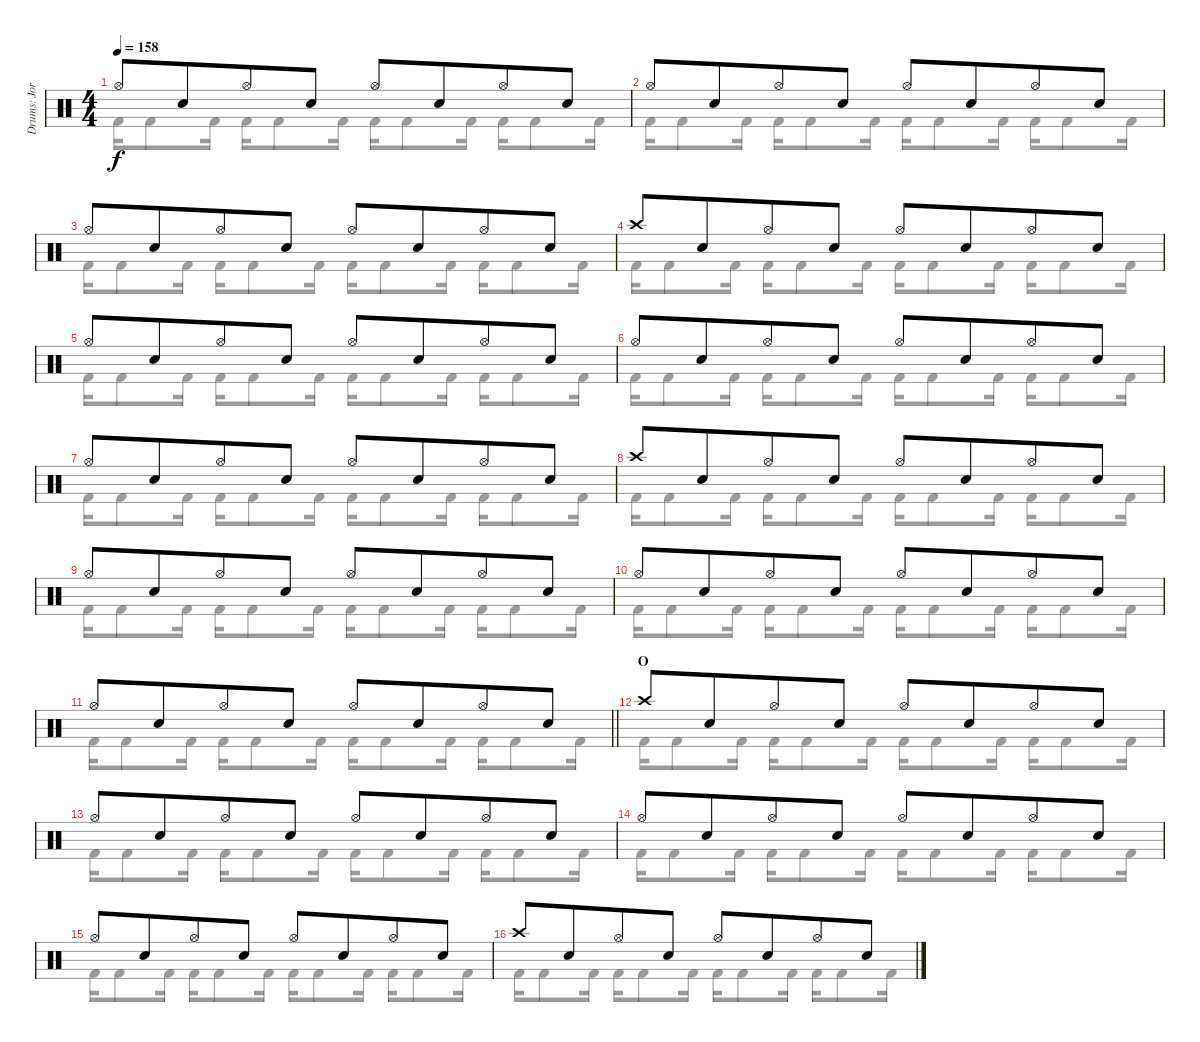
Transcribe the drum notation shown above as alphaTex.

\track ("Drums: Jorg" "Drums: Jor") {instrument percussion}
\staff {score}
\articulation defaults
\voice
\ts (4 4)
\tempo 158
\clef neutral
\ks c "Hi-Hat (open)".8{dy f} "Snare (hit) 2".8{beam merge} "Hi-Hat (open)".8 "Snare (hit) 2".8 "Hi-Hat (open)".8 "Snare (hit) 2".8{beam merge} "Hi-Hat (open)".8 "Snare (hit) 2".8
|
"Hi-Hat (open)".8 "Snare (hit) 2".8{beam merge} "Hi-Hat (open)".8 "Snare (hit) 2".8 "Hi-Hat (open)".8 "Snare (hit) 2".8{beam merge} "Hi-Hat (open)".8 "Snare (hit) 2".8 |
"Hi-Hat (open)".8 "Snare (hit) 2".8{beam merge} "Hi-Hat (open)".8 "Snare (hit) 2".8 "Hi-Hat (open)".8 "Snare (hit) 2".8{beam merge} "Hi-Hat (open)".8 "Snare (hit) 2".8 |
"Crash high (hit)".8 "Snare (hit) 2".8{beam merge} "Hi-Hat (open)".8 "Snare (hit) 2".8 "Hi-Hat (open)".8 "Snare (hit) 2".8{beam merge} "Hi-Hat (open)".8 "Snare (hit) 2".8 |
"Hi-Hat (open)".8 "Snare (hit) 2".8{beam merge} "Hi-Hat (open)".8 "Snare (hit) 2".8 "Hi-Hat (open)".8 "Snare (hit) 2".8{beam merge} "Hi-Hat (open)".8 "Snare (hit) 2".8 |
"Hi-Hat (open)".8 "Snare (hit) 2".8{beam merge} "Hi-Hat (open)".8 "Snare (hit) 2".8 "Hi-Hat (open)".8 "Snare (hit) 2".8{beam merge} "Hi-Hat (open)".8 "Snare (hit) 2".8 |
"Hi-Hat (open)".8 "Snare (hit) 2".8{beam merge} "Hi-Hat (open)".8 "Snare (hit) 2".8 "Hi-Hat (open)".8 "Snare (hit) 2".8{beam merge} "Hi-Hat (open)".8 "Snare (hit) 2".8 |
"Crash high (hit)".8 "Snare (hit) 2".8{beam merge} "Hi-Hat (open)".8 "Snare (hit) 2".8 "Hi-Hat (open)".8 "Snare (hit) 2".8{beam merge} "Hi-Hat (open)".8 "Snare (hit) 2".8 |
"Hi-Hat (open)".8 "Snare (hit) 2".8{beam merge} "Hi-Hat (open)".8 "Snare (hit) 2".8 "Hi-Hat (open)".8 "Snare (hit) 2".8{beam merge} "Hi-Hat (open)".8 "Snare (hit) 2".8 |
"Hi-Hat (open)".8 "Snare (hit) 2".8{beam merge} "Hi-Hat (open)".8 "Snare (hit) 2".8 "Hi-Hat (open)".8 "Snare (hit) 2".8{beam merge} "Hi-Hat (open)".8 "Snare (hit) 2".8 |
\barLineRight lightlight "Hi-Hat (open)".8 "Snare (hit) 2".8{beam merge} "Hi-Hat (open)".8 "Snare (hit) 2".8 "Hi-Hat (open)".8 "Snare (hit) 2".8{beam merge} "Hi-Hat (open)".8 "Snare (hit) 2".8
|
\section ("" "O")
"Crash high (hit)".8 "Snare (hit) 2".8{beam merge} "Hi-Hat (open)".8 "Snare (hit) 2".8 "Hi-Hat (open)".8 "Snare (hit) 2".8{beam merge} "Hi-Hat (open)".8 "Snare (hit) 2".8 |
"Hi-Hat (open)".8 "Snare (hit) 2".8{beam merge} "Hi-Hat (open)".8 "Snare (hit) 2".8 "Hi-Hat (open)".8 "Snare (hit) 2".8{beam merge} "Hi-Hat (open)".8 "Snare (hit) 2".8 |
"Hi-Hat (open)".8 "Snare (hit) 2".8{beam merge} "Hi-Hat (open)".8 "Snare (hit) 2".8 "Hi-Hat (open)".8 "Snare (hit) 2".8{beam merge} "Hi-Hat (open)".8 "Snare (hit) 2".8 |
"Hi-Hat (open)".8 "Snare (hit) 2".8{beam merge} "Hi-Hat (open)".8 "Snare (hit) 2".8 "Hi-Hat (open)".8 "Snare (hit) 2".8{beam merge} "Hi-Hat (open)".8 "Snare (hit) 2".8 |
"Crash high (hit)".8 "Snare (hit) 2".8{beam merge} "Hi-Hat (open)".8 "Snare (hit) 2".8 "Hi-Hat (open)".8 "Snare (hit) 2".8{beam merge} "Hi-Hat (open)".8 "Snare (hit) 2".8
\voice
\clef neutral
\ottava regular
\simile none
\ks c "Kick (hit) 2".16{dy f} "Kick (hit) 2".8 "Kick (hit) 2".16 "Kick (hit) 2".16 "Kick (hit) 2".8 "Kick (hit) 2".16 "Kick (hit) 2".16 "Kick (hit) 2".8 "Kick (hit) 2".16 "Kick (hit) 2".16 "Kick (hit) 2".8 "Kick (hit) 2".16
|
"Kick (hit) 2".16 "Kick (hit) 2".8 "Kick (hit) 2".16 "Kick (hit) 2".16 "Kick (hit) 2".8 "Kick (hit) 2".16 "Kick (hit) 2".16 "Kick (hit) 2".8 "Kick (hit) 2".16 "Kick (hit) 2".16 "Kick (hit) 2".8 "Kick (hit) 2".16 |
"Kick (hit) 2".16 "Kick (hit) 2".8 "Kick (hit) 2".16 "Kick (hit) 2".16 "Kick (hit) 2".8 "Kick (hit) 2".16 "Kick (hit) 2".16 "Kick (hit) 2".8 "Kick (hit) 2".16 "Kick (hit) 2".16 "Kick (hit) 2".8 "Kick (hit) 2".16 |
"Kick (hit) 2".16 "Kick (hit) 2".8 "Kick (hit) 2".16 "Kick (hit) 2".16 "Kick (hit) 2".8 "Kick (hit) 2".16 "Kick (hit) 2".16 "Kick (hit) 2".8 "Kick (hit) 2".16 "Kick (hit) 2".16 "Kick (hit) 2".8 "Kick (hit) 2".16 |
"Kick (hit) 2".16 "Kick (hit) 2".8 "Kick (hit) 2".16 "Kick (hit) 2".16 "Kick (hit) 2".8 "Kick (hit) 2".16 "Kick (hit) 2".16 "Kick (hit) 2".8 "Kick (hit) 2".16 "Kick (hit) 2".16 "Kick (hit) 2".8 "Kick (hit) 2".16 |
"Kick (hit) 2".16 "Kick (hit) 2".8 "Kick (hit) 2".16 "Kick (hit) 2".16 "Kick (hit) 2".8 "Kick (hit) 2".16 "Kick (hit) 2".16 "Kick (hit) 2".8 "Kick (hit) 2".16 "Kick (hit) 2".16 "Kick (hit) 2".8 "Kick (hit) 2".16 |
"Kick (hit) 2".16 "Kick (hit) 2".8 "Kick (hit) 2".16 "Kick (hit) 2".16 "Kick (hit) 2".8 "Kick (hit) 2".16 "Kick (hit) 2".16 "Kick (hit) 2".8 "Kick (hit) 2".16 "Kick (hit) 2".16 "Kick (hit) 2".8 "Kick (hit) 2".16 |
"Kick (hit) 2".16 "Kick (hit) 2".8 "Kick (hit) 2".16 "Kick (hit) 2".16 "Kick (hit) 2".8 "Kick (hit) 2".16 "Kick (hit) 2".16 "Kick (hit) 2".8 "Kick (hit) 2".16 "Kick (hit) 2".16 "Kick (hit) 2".8 "Kick (hit) 2".16 |
"Kick (hit) 2".16 "Kick (hit) 2".8 "Kick (hit) 2".16 "Kick (hit) 2".16 "Kick (hit) 2".8 "Kick (hit) 2".16 "Kick (hit) 2".16 "Kick (hit) 2".8 "Kick (hit) 2".16 "Kick (hit) 2".16 "Kick (hit) 2".8 "Kick (hit) 2".16 |
"Kick (hit) 2".16 "Kick (hit) 2".8 "Kick (hit) 2".16 "Kick (hit) 2".16 "Kick (hit) 2".8 "Kick (hit) 2".16 "Kick (hit) 2".16 "Kick (hit) 2".8 "Kick (hit) 2".16 "Kick (hit) 2".16 "Kick (hit) 2".8 "Kick (hit) 2".16 |
\barLineRight lightlight "Kick (hit) 2".16 "Kick (hit) 2".8 "Kick (hit) 2".16 "Kick (hit) 2".16 "Kick (hit) 2".8 "Kick (hit) 2".16 "Kick (hit) 2".16 "Kick (hit) 2".8 "Kick (hit) 2".16 "Kick (hit) 2".16 "Kick (hit) 2".8 "Kick (hit) 2".16
|
"Kick (hit) 2".16 "Kick (hit) 2".8 "Kick (hit) 2".16 "Kick (hit) 2".16 "Kick (hit) 2".8 "Kick (hit) 2".16 "Kick (hit) 2".16 "Kick (hit) 2".8 "Kick (hit) 2".16 "Kick (hit) 2".16 "Kick (hit) 2".8 "Kick (hit) 2".16 |
"Kick (hit) 2".16 "Kick (hit) 2".8 "Kick (hit) 2".16 "Kick (hit) 2".16 "Kick (hit) 2".8 "Kick (hit) 2".16 "Kick (hit) 2".16 "Kick (hit) 2".8 "Kick (hit) 2".16 "Kick (hit) 2".16 "Kick (hit) 2".8 "Kick (hit) 2".16 |
"Kick (hit) 2".16 "Kick (hit) 2".8 "Kick (hit) 2".16 "Kick (hit) 2".16 "Kick (hit) 2".8 "Kick (hit) 2".16 "Kick (hit) 2".16 "Kick (hit) 2".8 "Kick (hit) 2".16 "Kick (hit) 2".16 "Kick (hit) 2".8 "Kick (hit) 2".16 |
"Kick (hit) 2".16 "Kick (hit) 2".8 "Kick (hit) 2".16 "Kick (hit) 2".16 "Kick (hit) 2".8 "Kick (hit) 2".16 "Kick (hit) 2".16 "Kick (hit) 2".8 "Kick (hit) 2".16 "Kick (hit) 2".16 "Kick (hit) 2".8 "Kick (hit) 2".16 |
"Kick (hit) 2".16 "Kick (hit) 2".8 "Kick (hit) 2".16 "Kick (hit) 2".16 "Kick (hit) 2".8 "Kick (hit) 2".16 "Kick (hit) 2".16 "Kick (hit) 2".8 "Kick (hit) 2".16 "Kick (hit) 2".16 "Kick (hit) 2".8 "Kick (hit) 2".16
